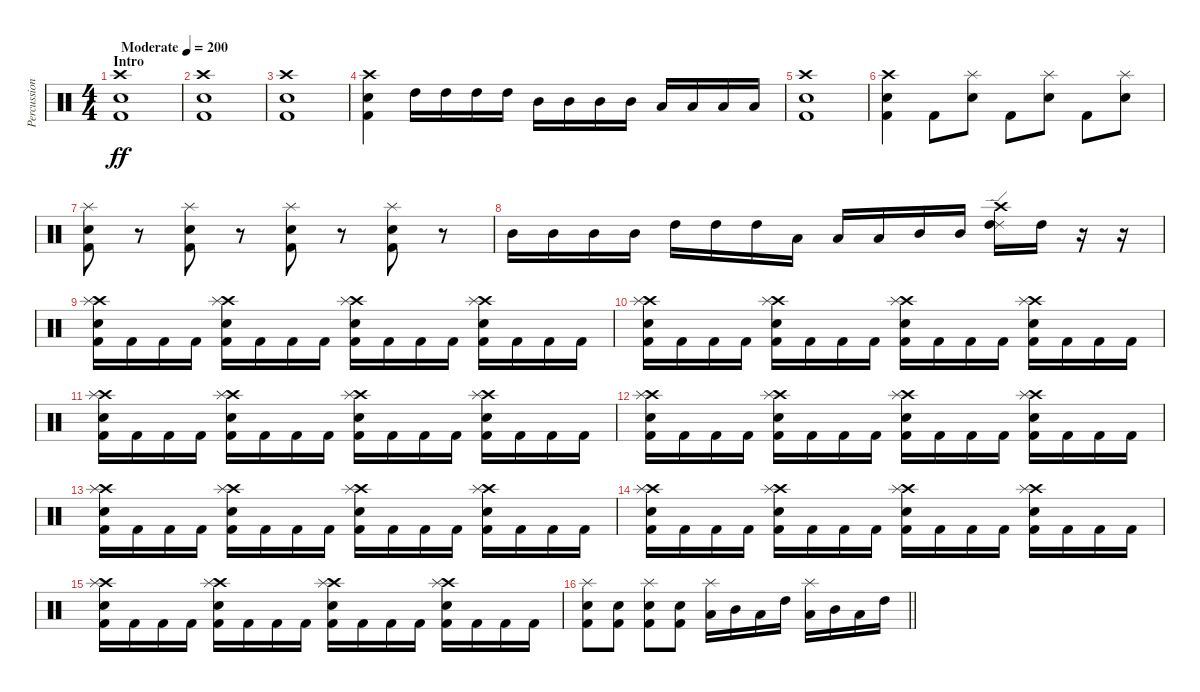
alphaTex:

\track ("Percussion" "Percussion") {instrument percussion}
\staff {score}
\articulation defaults
\ts (4 4)
\section ("" "Intro")
\tempo (200 "Moderate")
\clef neutral
\ks c
("Crash high (hit)" "Electric Snare (hit)" "Kick (hit) 2").1{dy ff} |
("Crash high (hit)" "Electric Snare (hit)" "Kick (hit) 2").1 |
("Crash high (hit)" "Electric Snare (hit)" "Kick (hit) 2").1 |
("Crash high (hit)" "Electric Snare (hit)" "Kick (hit) 2").4 "High Tom (hit)".16 "High Tom (hit)".16 "High Tom (hit)".16 "High Tom (hit)".16 "Mid Tom (hit)".16 "Mid Tom (hit)".16 "Mid Tom (hit)".16 "Mid Tom (hit)".16 "Low Tom (hit)".16 "Low Tom (hit)".16 "Low Tom (hit)".16 "Low Tom (hit)".16 |
("Crash high (hit)" "Electric Snare (hit)" "Kick (hit) 2").1 |
("Crash high (hit)" "Electric Snare (hit)" "Kick (hit) 2").4 "Kick (hit) 2".8 ("Splash (hit)" "Electric Snare (hit)").8 "Kick (hit) 2".8 ("Splash (hit)" "Electric Snare (hit)").8 "Kick (hit) 2".8 ("Splash (hit)" "Electric Snare (hit)").8 |
("Splash (hit)" "Electric Snare (hit)" "Kick (hit) 2").8 r.8 ("Splash (hit)" "Electric Snare (hit)" "Kick (hit) 2").8 r.8 ("Splash (hit)" "Electric Snare (hit)" "Kick (hit) 2").8 r.8 ("Splash (hit)" "Electric Snare (hit)" "Kick (hit) 2").8 r.8 |
"Mid Tom (hit)".16 "Mid Tom (hit)".16 "Mid Tom (hit)".16 "Mid Tom (hit)".16 "High Tom (hit)".16 "High Tom (hit)".16 "High Tom (hit)".16 "Low Tom (hit)".16 "Low Tom (hit)".16 "Low Tom (hit)".16 "Mid Tom (hit)".16 "Mid Tom (hit)".16 ("Ride (edge) 2" "Crash high (hit)" "High Tom (hit)").16 "High Tom (hit)".16 r.16 r.16 |
("Crash high (hit)" "Splash (hit)" "Electric Snare (hit)" "Kick (hit) 2").16 "Kick (hit) 2".16 "Kick (hit) 2".16 "Kick (hit) 2".16 ("Crash high (hit)" "Splash (hit)" "Electric Snare (hit)" "Kick (hit) 2").16 "Kick (hit) 2".16 "Kick (hit) 2".16 "Kick (hit) 2".16 ("Crash high (hit)" "Splash (hit)" "Electric Snare (hit)" "Kick (hit) 2").16 "Kick (hit) 2".16 "Kick (hit) 2".16 "Kick (hit) 2".16 ("Crash high (hit)" "Splash (hit)" "Electric Snare (hit)" "Kick (hit) 2").16 "Kick (hit) 2".16 "Kick (hit) 2".16 "Kick (hit) 2".16 |
("Crash high (hit)" "Splash (hit)" "Electric Snare (hit)" "Kick (hit) 2").16 "Kick (hit) 2".16 "Kick (hit) 2".16 "Kick (hit) 2".16 ("Crash high (hit)" "Splash (hit)" "Electric Snare (hit)" "Kick (hit) 2").16 "Kick (hit) 2".16 "Kick (hit) 2".16 "Kick (hit) 2".16 ("Crash high (hit)" "Splash (hit)" "Electric Snare (hit)" "Kick (hit) 2").16 "Kick (hit) 2".16 "Kick (hit) 2".16 "Kick (hit) 2".16 ("Crash high (hit)" "Splash (hit)" "Electric Snare (hit)" "Kick (hit) 2").16 "Kick (hit) 2".16 "Kick (hit) 2".16 "Kick (hit) 2".16 |
("Crash high (hit)" "Splash (hit)" "Electric Snare (hit)" "Kick (hit) 2").16 "Kick (hit) 2".16 "Kick (hit) 2".16 "Kick (hit) 2".16 ("Crash high (hit)" "Splash (hit)" "Electric Snare (hit)" "Kick (hit) 2").16 "Kick (hit) 2".16 "Kick (hit) 2".16 "Kick (hit) 2".16 ("Crash high (hit)" "Splash (hit)" "Electric Snare (hit)" "Kick (hit) 2").16 "Kick (hit) 2".16 "Kick (hit) 2".16 "Kick (hit) 2".16 ("Crash high (hit)" "Splash (hit)" "Electric Snare (hit)" "Kick (hit) 2").16 "Kick (hit) 2".16 "Kick (hit) 2".16 "Kick (hit) 2".16 |
("Crash high (hit)" "Splash (hit)" "Electric Snare (hit)" "Kick (hit) 2").16 "Kick (hit) 2".16 "Kick (hit) 2".16 "Kick (hit) 2".16 ("Crash high (hit)" "Splash (hit)" "Electric Snare (hit)" "Kick (hit) 2").16 "Kick (hit) 2".16 "Kick (hit) 2".16 "Kick (hit) 2".16 ("Crash high (hit)" "Splash (hit)" "Electric Snare (hit)" "Kick (hit) 2").16 "Kick (hit) 2".16 "Kick (hit) 2".16 "Kick (hit) 2".16 ("Crash high (hit)" "Splash (hit)" "Electric Snare (hit)" "Kick (hit) 2").16 "Kick (hit) 2".16 "Kick (hit) 2".16 "Kick (hit) 2".16 |
("Crash high (hit)" "Splash (hit)" "Electric Snare (hit)" "Kick (hit) 2").16 "Kick (hit) 2".16 "Kick (hit) 2".16 "Kick (hit) 2".16 ("Crash high (hit)" "Splash (hit)" "Electric Snare (hit)" "Kick (hit) 2").16 "Kick (hit) 2".16 "Kick (hit) 2".16 "Kick (hit) 2".16 ("Crash high (hit)" "Splash (hit)" "Electric Snare (hit)" "Kick (hit) 2").16 "Kick (hit) 2".16 "Kick (hit) 2".16 "Kick (hit) 2".16 ("Crash high (hit)" "Splash (hit)" "Electric Snare (hit)" "Kick (hit) 2").16 "Kick (hit) 2".16 "Kick (hit) 2".16 "Kick (hit) 2".16 |
("Crash high (hit)" "Splash (hit)" "Electric Snare (hit)" "Kick (hit) 2").16 "Kick (hit) 2".16 "Kick (hit) 2".16 "Kick (hit) 2".16 ("Crash high (hit)" "Splash (hit)" "Electric Snare (hit)" "Kick (hit) 2").16 "Kick (hit) 2".16 "Kick (hit) 2".16 "Kick (hit) 2".16 ("Crash high (hit)" "Splash (hit)" "Electric Snare (hit)" "Kick (hit) 2").16 "Kick (hit) 2".16 "Kick (hit) 2".16 "Kick (hit) 2".16 ("Crash high (hit)" "Splash (hit)" "Electric Snare (hit)" "Kick (hit) 2").16 "Kick (hit) 2".16 "Kick (hit) 2".16 "Kick (hit) 2".16 |
("Crash high (hit)" "Splash (hit)" "Electric Snare (hit)" "Kick (hit) 2").16 "Kick (hit) 2".16 "Kick (hit) 2".16 "Kick (hit) 2".16 ("Crash high (hit)" "Splash (hit)" "Electric Snare (hit)" "Kick (hit) 2").16 "Kick (hit) 2".16 "Kick (hit) 2".16 "Kick (hit) 2".16 ("Crash high (hit)" "Splash (hit)" "Electric Snare (hit)" "Kick (hit) 2").16 "Kick (hit) 2".16 "Kick (hit) 2".16 "Kick (hit) 2".16 ("Crash high (hit)" "Splash (hit)" "Electric Snare (hit)" "Kick (hit) 2").16 "Kick (hit) 2".16 "Kick (hit) 2".16 "Kick (hit) 2".16 |
\barLineRight lightlight
("Splash (hit)" "Electric Snare (hit)" "Kick (hit) 2").8 ("Electric Snare (hit)" "Kick (hit) 2").8 ("Splash (hit)" "Electric Snare (hit)" "Kick (hit) 2").8 ("Electric Snare (hit)" "Kick (hit) 2").8 ("Splash (hit)" "Low Tom (hit)").16 "Mid Tom (hit)".16 "Low Tom (hit)".16 "High Tom (hit)".16 ("Splash (hit)" "Low Tom (hit)").16 "Mid Tom (hit)".16 "Low Tom (hit)".16 "High Tom (hit)".16
